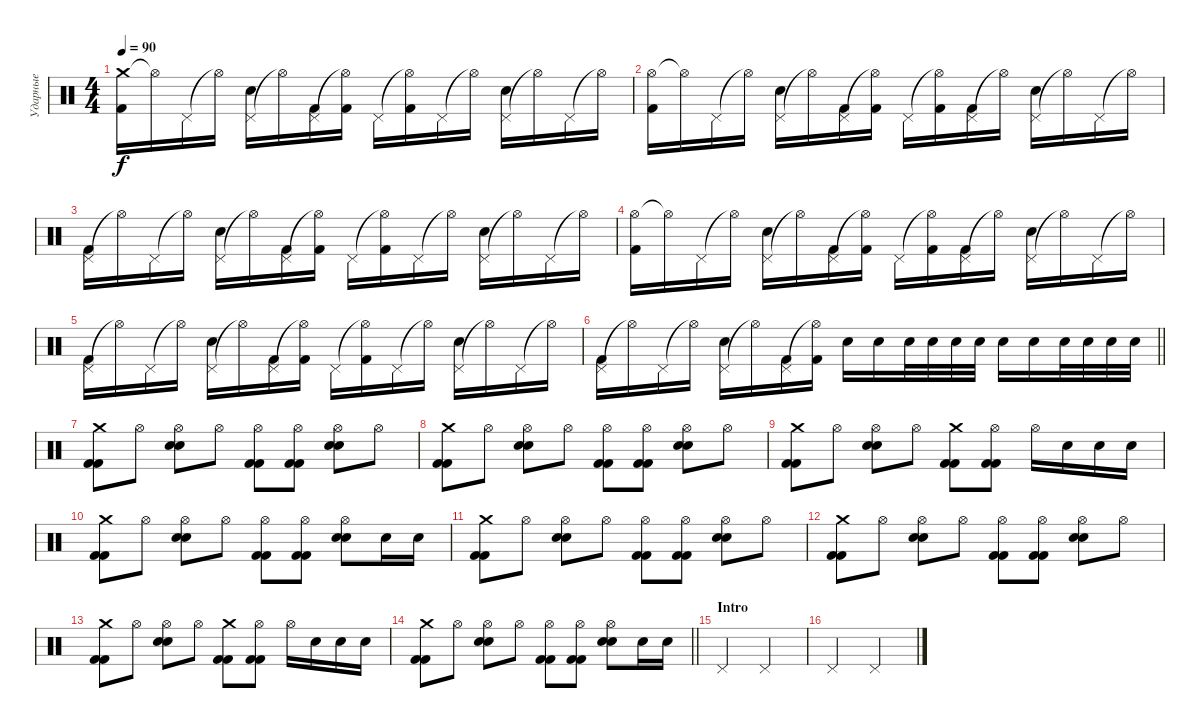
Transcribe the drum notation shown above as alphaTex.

\track ("Ударные" "Ударные") {instrument percussion}
\staff {score}
\articulation defaults
\ts (4 4)
\tempo 90
\clef neutral
\ks c
("Crash medium (hit)" "Kick (hit) 2").16{dy f} "Hi-Hat (open)"{t}.16 "Pedal Hi-Hat (hit)".16 "Hi-Hat (open)"{t}.16 ("Pedal Hi-Hat (hit)" "Snare (hit) 2").16 "Hi-Hat (open)"{t}.16 ("Pedal Hi-Hat (hit)" "Kick (hit) 2").16 ("Hi-Hat (open)"{t} "Kick (hit) 2").16 "Pedal Hi-Hat (hit)".16 ("Hi-Hat (open)"{t} "Kick (hit) 2").16 "Pedal Hi-Hat (hit)".16 "Hi-Hat (open)"{t}.16 ("Pedal Hi-Hat (hit)" "Snare (hit) 2").16 "Hi-Hat (open)"{t}.16 "Pedal Hi-Hat (hit)".16 "Hi-Hat (open)"{t}.16 |
("Hi-Hat (open)" "Kick (hit) 2").16 "Hi-Hat (open)"{t}.16 "Pedal Hi-Hat (hit)".16 "Hi-Hat (open)"{t}.16 ("Pedal Hi-Hat (hit)" "Snare (hit) 2").16 "Hi-Hat (open)"{t}.16 ("Pedal Hi-Hat (hit)" "Kick (hit) 2").16 ("Hi-Hat (open)"{t} "Kick (hit) 2").16 "Pedal Hi-Hat (hit)".16 ("Hi-Hat (open)"{t} "Kick (hit) 2").16 ("Pedal Hi-Hat (hit)" "Kick (hit) 2").16 "Hi-Hat (open)"{t}.16 ("Pedal Hi-Hat (hit)" "Snare (hit) 2").16 "Hi-Hat (open)"{t}.16 "Pedal Hi-Hat (hit)".16 "Hi-Hat (open)"{t}.16 |
("Pedal Hi-Hat (hit)" "Kick (hit) 2").16 "Hi-Hat (open)"{t}.16 "Pedal Hi-Hat (hit)".16 "Hi-Hat (open)"{t}.16 ("Pedal Hi-Hat (hit)" "Snare (hit) 2").16 "Hi-Hat (open)"{t}.16 ("Pedal Hi-Hat (hit)" "Kick (hit) 2").16 ("Hi-Hat (open)"{t} "Kick (hit) 2").16 "Pedal Hi-Hat (hit)".16 ("Hi-Hat (open)"{t} "Kick (hit) 2").16 "Pedal Hi-Hat (hit)".16 "Hi-Hat (open)"{t}.16 ("Pedal Hi-Hat (hit)" "Snare (hit) 2").16 "Hi-Hat (open)"{t}.16 "Pedal Hi-Hat (hit)".16 "Hi-Hat (open)"{t}.16 |
("Hi-Hat (open)" "Kick (hit) 2").16 "Hi-Hat (open)"{t}.16 "Pedal Hi-Hat (hit)".16 "Hi-Hat (open)"{t}.16 ("Pedal Hi-Hat (hit)" "Snare (hit) 2").16 "Hi-Hat (open)"{t}.16 ("Pedal Hi-Hat (hit)" "Kick (hit) 2").16 ("Hi-Hat (open)"{t} "Kick (hit) 2").16 "Pedal Hi-Hat (hit)".16 ("Hi-Hat (open)"{t} "Kick (hit) 2").16 ("Pedal Hi-Hat (hit)" "Kick (hit) 2").16 "Hi-Hat (open)"{t}.16 ("Pedal Hi-Hat (hit)" "Snare (hit) 2").16 "Hi-Hat (open)"{t}.16 "Pedal Hi-Hat (hit)".16 "Hi-Hat (open)"{t}.16 |
("Pedal Hi-Hat (hit)" "Kick (hit) 2").16 "Hi-Hat (open)"{t}.16 "Pedal Hi-Hat (hit)".16 "Hi-Hat (open)"{t}.16 ("Pedal Hi-Hat (hit)" "Snare (hit) 2").16 "Hi-Hat (open)"{t}.16 ("Pedal Hi-Hat (hit)" "Kick (hit) 2").16 ("Hi-Hat (open)"{t} "Kick (hit) 2").16 "Pedal Hi-Hat (hit)".16 ("Hi-Hat (open)"{t} "Kick (hit) 2").16 "Pedal Hi-Hat (hit)".16 "Hi-Hat (open)"{t}.16 ("Pedal Hi-Hat (hit)" "Snare (hit) 2").16 "Hi-Hat (open)"{t}.16 "Pedal Hi-Hat (hit)".16 "Hi-Hat (open)"{t}.16 |
\barLineRight lightlight
("Pedal Hi-Hat (hit)" "Kick (hit) 2").16 "Hi-Hat (open)"{t}.16 "Pedal Hi-Hat (hit)".16 "Hi-Hat (open)"{t}.16 ("Pedal Hi-Hat (hit)" "Snare (hit) 2").16 "Hi-Hat (open)"{t}.16 ("Pedal Hi-Hat (hit)" "Kick (hit) 2").16 ("Hi-Hat (open)"{t} "Kick (hit) 2").16 "Snare (hit) 2".16 "Snare (hit) 2".16 "Snare (hit) 2".32 "Snare (hit) 2".32 "Snare (hit) 2".32 "Snare (hit) 2".32 "Snare (hit) 2".16 "Snare (hit) 2".16 "Snare (hit) 2".32 "Snare (hit) 2".32 "Snare (hit) 2".32 "Snare (hit) 2".32 |
("Crash medium (hit)" "Kick (hit) 2" "Kick (hit) 2").8 "Hi-Hat (open)".8 ("Hi-Hat (open)" "Snare (hit) 2" "Snare (hit) 2").8 "Hi-Hat (open)".8 ("Hi-Hat (open)" "Kick (hit) 2" "Kick (hit) 2").8 ("Hi-Hat (open)" "Kick (hit) 2" "Kick (hit) 2").8 ("Hi-Hat (open)" "Snare (hit) 2" "Snare (hit) 2").8 "Hi-Hat (open)".8 |
("Crash medium (hit)" "Kick (hit) 2" "Kick (hit) 2").8 "Hi-Hat (open)".8 ("Hi-Hat (open)" "Snare (hit) 2" "Snare (hit) 2").8 "Hi-Hat (open)".8 ("Hi-Hat (open)" "Kick (hit) 2" "Kick (hit) 2").8 ("Hi-Hat (open)" "Kick (hit) 2" "Kick (hit) 2").8 ("Hi-Hat (open)" "Snare (hit) 2" "Snare (hit) 2").8 "Hi-Hat (open)".8 |
("Crash medium (hit)" "Kick (hit) 2" "Kick (hit) 2").8 "Hi-Hat (open)".8 ("Hi-Hat (open)" "Snare (hit) 2" "Snare (hit) 2").8 "Hi-Hat (open)".8 ("Crash medium (hit)" "Kick (hit) 2" "Kick (hit) 2").8 ("Hi-Hat (open)" "Kick (hit) 2" "Kick (hit) 2").8 "Hi-Hat (open)".16 "Snare (hit) 2".16 "Snare (hit) 2".16 "Snare (hit) 2".16 |
("Crash medium (hit)" "Kick (hit) 2" "Kick (hit) 2").8 "Hi-Hat (open)".8 ("Hi-Hat (open)" "Snare (hit) 2" "Snare (hit) 2").8 "Hi-Hat (open)".8 ("Hi-Hat (open)" "Kick (hit) 2" "Kick (hit) 2").8 ("Hi-Hat (open)" "Kick (hit) 2" "Kick (hit) 2").8 ("Hi-Hat (open)" "Snare (hit) 2" "Snare (hit) 2").8 "Snare (hit) 2".16 "Snare (hit) 2".16 |
("Crash medium (hit)" "Kick (hit) 2" "Kick (hit) 2").8 "Hi-Hat (open)".8 ("Hi-Hat (open)" "Snare (hit) 2" "Snare (hit) 2").8 "Hi-Hat (open)".8 ("Hi-Hat (open)" "Kick (hit) 2" "Kick (hit) 2").8 ("Hi-Hat (open)" "Kick (hit) 2" "Kick (hit) 2").8 ("Hi-Hat (open)" "Snare (hit) 2" "Snare (hit) 2").8 "Hi-Hat (open)".8 |
("Crash medium (hit)" "Kick (hit) 2" "Kick (hit) 2").8 "Hi-Hat (open)".8 ("Hi-Hat (open)" "Snare (hit) 2" "Snare (hit) 2").8 "Hi-Hat (open)".8 ("Hi-Hat (open)" "Kick (hit) 2" "Kick (hit) 2").8 ("Hi-Hat (open)" "Kick (hit) 2" "Kick (hit) 2").8 ("Hi-Hat (open)" "Snare (hit) 2" "Snare (hit) 2").8 "Hi-Hat (open)".8 |
("Crash medium (hit)" "Kick (hit) 2" "Kick (hit) 2").8 "Hi-Hat (open)".8 ("Hi-Hat (open)" "Snare (hit) 2" "Snare (hit) 2").8 "Hi-Hat (open)".8 ("Crash medium (hit)" "Kick (hit) 2" "Kick (hit) 2").8 ("Hi-Hat (open)" "Kick (hit) 2" "Kick (hit) 2").8 "Hi-Hat (open)".16 "Snare (hit) 2".16 "Snare (hit) 2".16 "Snare (hit) 2".16 |
\barLineRight lightlight
("Crash medium (hit)" "Kick (hit) 2" "Kick (hit) 2").8 "Hi-Hat (open)".8 ("Hi-Hat (open)" "Snare (hit) 2" "Snare (hit) 2").8 "Hi-Hat (open)".8 ("Hi-Hat (open)" "Kick (hit) 2" "Kick (hit) 2").8 ("Hi-Hat (open)" "Kick (hit) 2" "Kick (hit) 2").8 ("Hi-Hat (open)" "Snare (hit) 2" "Snare (hit) 2").8 "Snare (hit) 2".16 "Snare (hit) 2".16 |
\section ("" "Intro")
"Pedal Hi-Hat (hit)".2 "Pedal Hi-Hat (hit)".2 |
"Pedal Hi-Hat (hit)".2 "Pedal Hi-Hat (hit)".2
